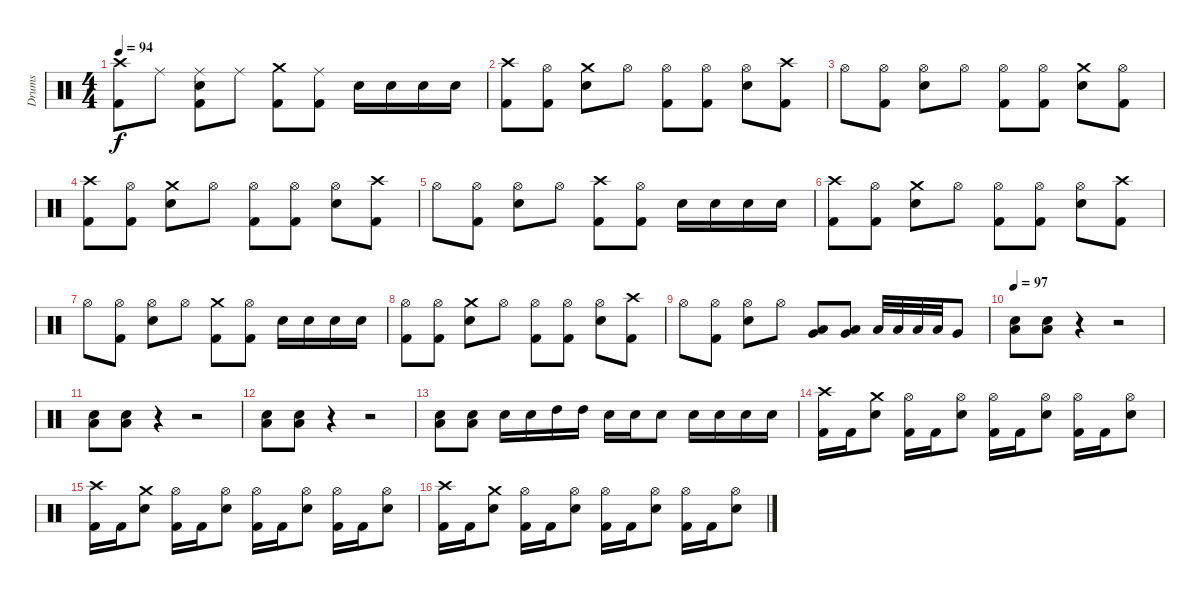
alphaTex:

\track ("Drums" "Drums") {instrument percussion}
\staff {score}
\articulation defaults
\ts (4 4)
\tempo 94
\clef neutral
\ks c
("Crash high (hit)" "Kick (hit) 2").8{dy f} "Ride (middle)".8 ("Ride (middle)" "Electric Snare (hit)" "Kick (hit) 2").8 "Ride (middle)".8 ("Crash medium (hit)" "Kick (hit) 2").8 ("Ride (middle)" "Kick (hit) 2").8 "Electric Snare (hit)".16 "Electric Snare (hit)".16 "Electric Snare (hit)".16 "Electric Snare (hit)".16 |
("Crash high (hit)" "Kick (hit) 2").8 ("Hi-Hat (open)" "Kick (hit) 2").8 ("Crash medium (hit)" "Electric Snare (hit)").8 "Hi-Hat (open)".8 ("Hi-Hat (open)" "Kick (hit) 2").8 ("Hi-Hat (open)" "Kick (hit) 2").8 ("Hi-Hat (open)" "Electric Snare (hit)").8 ("Crash high (hit)" "Kick (hit) 2").8 |
"Hi-Hat (open)".8 ("Hi-Hat (open)" "Kick (hit) 2").8 ("Hi-Hat (open)" "Electric Snare (hit)").8 "Hi-Hat (open)".8 ("Hi-Hat (open)" "Kick (hit) 2").8 ("Hi-Hat (open)" "Kick (hit) 2").8 ("Crash medium (hit)" "Electric Snare (hit)").8 ("Hi-Hat (open)" "Kick (hit) 2").8 |
("Crash high (hit)" "Kick (hit) 2").8 ("Hi-Hat (open)" "Kick (hit) 2").8 ("Crash medium (hit)" "Electric Snare (hit)").8 "Hi-Hat (open)".8 ("Hi-Hat (open)" "Kick (hit) 2").8 ("Hi-Hat (open)" "Kick (hit) 2").8 ("Hi-Hat (open)" "Electric Snare (hit)").8 ("Crash high (hit)" "Kick (hit) 2").8 |
"Hi-Hat (open)".8 ("Hi-Hat (open)" "Kick (hit) 2").8 ("Hi-Hat (open)" "Electric Snare (hit)").8 "Hi-Hat (open)".8 ("Crash high (hit)" "Kick (hit) 2").8 ("Hi-Hat (open)" "Kick (hit) 2").8 "Electric Snare (hit)".16 "Electric Snare (hit)".16 "Electric Snare (hit)".16 "Electric Snare (hit)".16 |
("Crash high (hit)" "Kick (hit) 2").8 ("Hi-Hat (open)" "Kick (hit) 2").8 ("Crash medium (hit)" "Electric Snare (hit)").8 "Hi-Hat (open)".8 ("Hi-Hat (open)" "Kick (hit) 2").8 ("Hi-Hat (open)" "Kick (hit) 2").8 ("Hi-Hat (open)" "Electric Snare (hit)").8 ("Crash high (hit)" "Kick (hit) 2").8 |
"Hi-Hat (open)".8 ("Hi-Hat (open)" "Kick (hit) 2").8 ("Hi-Hat (open)" "Electric Snare (hit)").8 "Hi-Hat (open)".8 ("Crash medium (hit)" "Kick (hit) 2").8 ("Hi-Hat (open)" "Kick (hit) 2").8 "Electric Snare (hit)".16 "Electric Snare (hit)".16 "Electric Snare (hit)".16 "Electric Snare (hit)".16 |
("Hi-Hat (open)" "Kick (hit) 2").8 ("Hi-Hat (open)" "Kick (hit) 2").8 ("Crash medium (hit)" "Electric Snare (hit)").8 "Hi-Hat (open)".8 ("Hi-Hat (open)" "Kick (hit) 2").8 ("Hi-Hat (open)" "Kick (hit) 2").8 ("Hi-Hat (open)" "Electric Snare (hit)").8 ("Crash high (hit)" "Kick (hit) 2").8 |
"Hi-Hat (open)".8 ("Hi-Hat (open)" "Kick (hit) 2").8 ("Hi-Hat (open)" "Electric Snare (hit)").8 "Hi-Hat (open)".8 ("Very Low Tom (hit)" "Low Tom (hit)").8 ("Very Low Tom (hit)" "Low Tom (hit)").8 "Low Tom (hit)".32 "Low Tom (hit)".32 "Low Floor Tom (hit)".32 "Low Floor Tom (hit)".32 "Very Low Tom (hit)".8 |
\tempo 97
("Electric Snare (hit)" "Low Floor Tom (hit)").8 ("Electric Snare (hit)" "Low Floor Tom (hit)").8 r.4 r.2 |
("Electric Snare (hit)" "Low Floor Tom (hit)").8 ("Electric Snare (hit)" "Low Floor Tom (hit)").8 r.4 r.2 |
("Electric Snare (hit)" "Low Floor Tom (hit)").8 ("Electric Snare (hit)" "Low Floor Tom (hit)").8 r.4 r.2 |
("Electric Snare (hit)" "Low Floor Tom (hit)").8 ("Electric Snare (hit)" "Low Floor Tom (hit)").8 "Electric Snare (hit)".16 "Electric Snare (hit)".16 "High Tom (hit)".16 "High Tom (hit)".16 "Electric Snare (hit)".16 "Electric Snare (hit)".16 "Electric Snare (hit)".8 "Electric Snare (hit)".16 "Electric Snare (hit)".16 "Electric Snare (hit)".16 "Electric Snare (hit)".16 |
("Crash high (hit)" "Kick (hit) 2").16 "Kick (hit) 2".16 ("Crash medium (hit)" "Electric Snare (hit)").8 ("Hi-Hat (open)" "Kick (hit) 2").16 "Kick (hit) 2".16 ("Hi-Hat (open)" "Electric Snare (hit)").8 ("Hi-Hat (open)" "Kick (hit) 2").16 "Kick (hit) 2".16 ("Hi-Hat (open)" "Electric Snare (hit)").8 ("Hi-Hat (open)" "Kick (hit) 2").16 "Kick (hit) 2".16 ("Hi-Hat (open)" "Electric Snare (hit)").8 |
("Crash high (hit)" "Kick (hit) 2").16 "Kick (hit) 2".16 ("Crash medium (hit)" "Electric Snare (hit)").8 ("Hi-Hat (open)" "Kick (hit) 2").16 "Kick (hit) 2".16 ("Hi-Hat (open)" "Electric Snare (hit)").8 ("Hi-Hat (open)" "Kick (hit) 2").16 "Kick (hit) 2".16 ("Hi-Hat (open)" "Electric Snare (hit)").8 ("Hi-Hat (open)" "Kick (hit) 2").16 "Kick (hit) 2".16 ("Hi-Hat (open)" "Electric Snare (hit)").8 |
("Crash high (hit)" "Kick (hit) 2").16 "Kick (hit) 2".16 ("Crash medium (hit)" "Electric Snare (hit)").8 ("Hi-Hat (open)" "Kick (hit) 2").16 "Kick (hit) 2".16 ("Hi-Hat (open)" "Electric Snare (hit)").8 ("Hi-Hat (open)" "Kick (hit) 2").16 "Kick (hit) 2".16 ("Hi-Hat (open)" "Electric Snare (hit)").8 ("Hi-Hat (open)" "Kick (hit) 2").16 "Kick (hit) 2".16 ("Hi-Hat (open)" "Electric Snare (hit)").8
